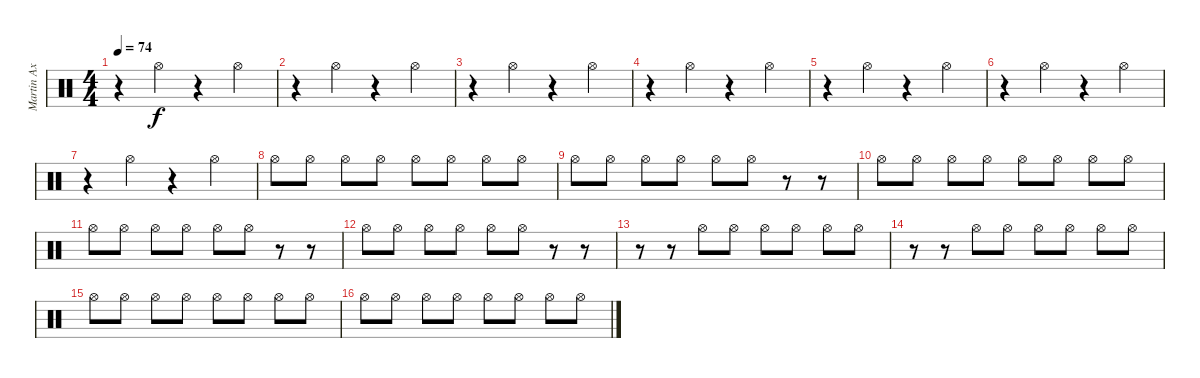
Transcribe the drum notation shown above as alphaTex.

\track (" Martin Axenrot - Cymbals" " Martin Ax") {instrument percussion}
\staff {score}
\articulation defaults
\ts (4 4)
\tempo 74
\clef neutral
\ks c
r.4{dy f} "Hi-Hat (open)".4 r.4 "Hi-Hat (open)".4 |
r.4 "Hi-Hat (open)".4 r.4 "Hi-Hat (open)".4 |
r.4 "Hi-Hat (open)".4 r.4 "Hi-Hat (open)".4 |
r.4 "Hi-Hat (open)".4 r.4 "Hi-Hat (open)".4 |
r.4 "Hi-Hat (open)".4 r.4 "Hi-Hat (open)".4 |
r.4 "Hi-Hat (open)".4 r.4 "Hi-Hat (open)".4 |
r.4 "Hi-Hat (open)".4 r.4 "Hi-Hat (open)".4 |
"Hi-Hat (open)".8 "Hi-Hat (open)".8 "Hi-Hat (open)".8 "Hi-Hat (open)".8 "Hi-Hat (open)".8 "Hi-Hat (open)".8 "Hi-Hat (open)".8 "Hi-Hat (open)".8 |
"Hi-Hat (open)".8 "Hi-Hat (open)".8 "Hi-Hat (open)".8 "Hi-Hat (open)".8 "Hi-Hat (open)".8 "Hi-Hat (open)".8 r.8 r.8 |
"Hi-Hat (open)".8 "Hi-Hat (open)".8 "Hi-Hat (open)".8 "Hi-Hat (open)".8 "Hi-Hat (open)".8 "Hi-Hat (open)".8 "Hi-Hat (open)".8 "Hi-Hat (open)".8 |
"Hi-Hat (open)".8 "Hi-Hat (open)".8 "Hi-Hat (open)".8 "Hi-Hat (open)".8 "Hi-Hat (open)".8 "Hi-Hat (open)".8 r.8 r.8 |
"Hi-Hat (open)".8 "Hi-Hat (open)".8 "Hi-Hat (open)".8 "Hi-Hat (open)".8 "Hi-Hat (open)".8 "Hi-Hat (open)".8 r.8 r.8 |
r.8 r.8 "Hi-Hat (open)".8 "Hi-Hat (open)".8 "Hi-Hat (open)".8 "Hi-Hat (open)".8 "Hi-Hat (open)".8 "Hi-Hat (open)".8 |
r.8 r.8 "Hi-Hat (open)".8 "Hi-Hat (open)".8 "Hi-Hat (open)".8 "Hi-Hat (open)".8 "Hi-Hat (open)".8 "Hi-Hat (open)".8 |
"Hi-Hat (open)".8 "Hi-Hat (open)".8 "Hi-Hat (open)".8 "Hi-Hat (open)".8 "Hi-Hat (open)".8 "Hi-Hat (open)".8 "Hi-Hat (open)".8 "Hi-Hat (open)".8 |
"Hi-Hat (open)".8 "Hi-Hat (open)".8 "Hi-Hat (open)".8 "Hi-Hat (open)".8 "Hi-Hat (open)".8 "Hi-Hat (open)".8 "Hi-Hat (open)".8 "Hi-Hat (open)".8
